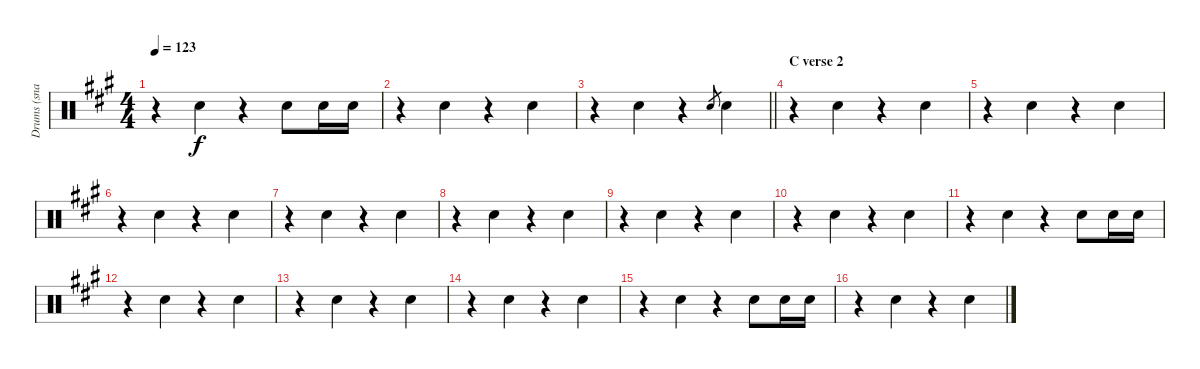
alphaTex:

\track ("Drums (snare)" "Drums (sna") {instrument percussion}
\staff {score}
\articulation defaults
\ts (4 4)
\tempo 123
\clef neutral
\ks a
r.4{dy f} "Snare (hit) 2".4 r.4 "Snare (hit) 2".8 "Snare (hit) 2".16 "Snare (hit) 2".16 |
r.4 "Snare (hit) 2".4 r.4 "Snare (hit) 2".4 |
\barLineRight lightlight
r.4 "Snare (hit) 2".4 r.4 "Snare (hit) 2".8{gr} "Snare (hit) 2".4 |
\section ("" "C verse 2")
r.4 "Snare (hit) 2".4 r.4 "Snare (hit) 2".4 |
r.4 "Snare (hit) 2".4 r.4 "Snare (hit) 2".4 |
r.4 "Snare (hit) 2".4 r.4 "Snare (hit) 2".4 |
r.4 "Snare (hit) 2".4 r.4 "Snare (hit) 2".4 |
r.4 "Snare (hit) 2".4 r.4 "Snare (hit) 2".4 |
r.4 "Snare (hit) 2".4 r.4 "Snare (hit) 2".4 |
r.4 "Snare (hit) 2".4 r.4 "Snare (hit) 2".4 |
r.4 "Snare (hit) 2".4 r.4 "Snare (hit) 2".8 "Snare (hit) 2".16 "Snare (hit) 2".16 |
r.4 "Snare (hit) 2".4 r.4 "Snare (hit) 2".4 |
r.4 "Snare (hit) 2".4 r.4 "Snare (hit) 2".4 |
r.4 "Snare (hit) 2".4 r.4 "Snare (hit) 2".4 |
r.4 "Snare (hit) 2".4 r.4 "Snare (hit) 2".8 "Snare (hit) 2".16 "Snare (hit) 2".16 |
r.4 "Snare (hit) 2".4 r.4 "Snare (hit) 2".4
